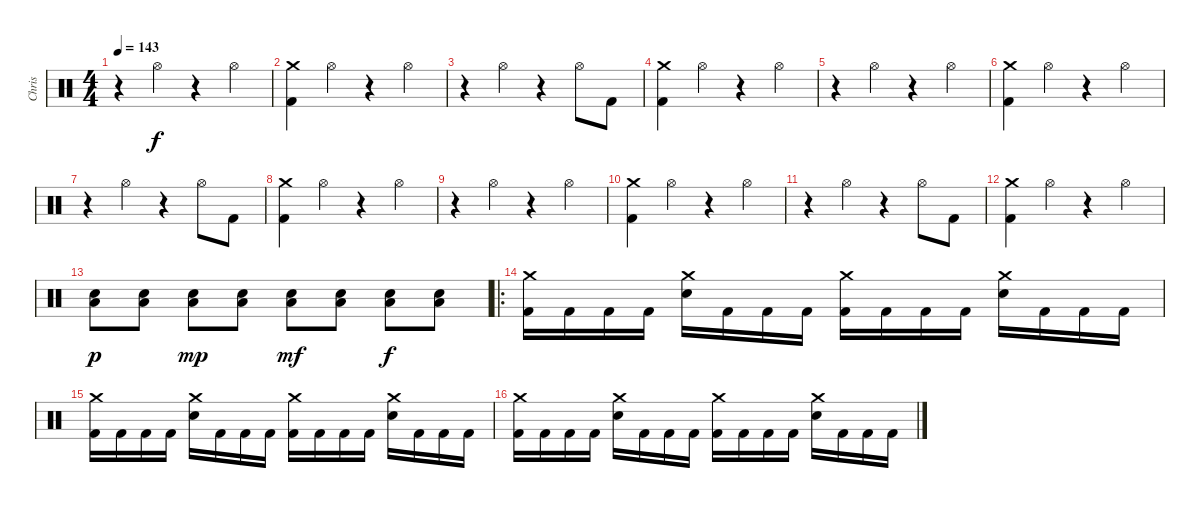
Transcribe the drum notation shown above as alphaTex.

\track ("Chris" "Chris") {instrument percussion}
\staff {score}
\articulation defaults
\ts (4 4)
\tempo 143
\clef neutral
\ks c
r.4{dy f} "Hi-Hat (open)".4 r.4 "Hi-Hat (open)".4 |
("Crash medium (hit)" "Kick (hit) 2").4 "Hi-Hat (open)".4 r.4 "Hi-Hat (open)".4 |
r.4 "Hi-Hat (open)".4 r.4 "Hi-Hat (open)".8 "Kick (hit) 2".8 |
("Crash medium (hit)" "Kick (hit) 2").4 "Hi-Hat (open)".4 r.4 "Hi-Hat (open)".4 |
r.4 "Hi-Hat (open)".4 r.4 "Hi-Hat (open)".4 |
("Crash medium (hit)" "Kick (hit) 2").4 "Hi-Hat (open)".4 r.4 "Hi-Hat (open)".4 |
r.4 "Hi-Hat (open)".4 r.4 "Hi-Hat (open)".8 "Kick (hit) 2".8 |
("Crash medium (hit)" "Kick (hit) 2").4 "Hi-Hat (open)".4 r.4 "Hi-Hat (open)".4 |
r.4 "Hi-Hat (open)".4 r.4 "Hi-Hat (open)".4 |
("Crash medium (hit)" "Kick (hit) 2").4 "Hi-Hat (open)".4 r.4 "Hi-Hat (open)".4 |
r.4 "Hi-Hat (open)".4 r.4 "Hi-Hat (open)".8 "Kick (hit) 2".8 |
("Crash medium (hit)" "Kick (hit) 2").4 "Hi-Hat (open)".4 r.4 "Hi-Hat (open)".4 |
("Electric Snare (hit)" "Low Floor Tom (hit)").8{dy p} ("Electric Snare (hit)" "Low Floor Tom (hit)").8 ("Electric Snare (hit)" "Low Floor Tom (hit)").8{dy mp} ("Electric Snare (hit)" "Low Floor Tom (hit)").8 ("Electric Snare (hit)" "Low Floor Tom (hit)").8{dy mf} ("Electric Snare (hit)" "Low Floor Tom (hit)").8 ("Electric Snare (hit)" "Low Floor Tom (hit)").8{dy f} ("Electric Snare (hit)" "Low Floor Tom (hit)").8 |
\ro
("Crash medium (hit)" "Kick (hit) 2").16 "Kick (hit) 2".16 "Kick (hit) 2".16 "Kick (hit) 2".16 ("Crash medium (hit)" "Electric Snare (hit)").16 "Kick (hit) 2".16 "Kick (hit) 2".16 "Kick (hit) 2".16 ("Crash medium (hit)" "Kick (hit) 2").16 "Kick (hit) 2".16 "Kick (hit) 2".16 "Kick (hit) 2".16 ("Crash medium (hit)" "Electric Snare (hit)").16 "Kick (hit) 2".16 "Kick (hit) 2".16 "Kick (hit) 2".16 |
("Crash medium (hit)" "Kick (hit) 2").16 "Kick (hit) 2".16 "Kick (hit) 2".16 "Kick (hit) 2".16 ("Crash medium (hit)" "Electric Snare (hit)").16 "Kick (hit) 2".16 "Kick (hit) 2".16 "Kick (hit) 2".16 ("Crash medium (hit)" "Kick (hit) 2").16 "Kick (hit) 2".16 "Kick (hit) 2".16 "Kick (hit) 2".16 ("Crash medium (hit)" "Electric Snare (hit)").16 "Kick (hit) 2".16 "Kick (hit) 2".16 "Kick (hit) 2".16 |
("Crash medium (hit)" "Kick (hit) 2").16 "Kick (hit) 2".16 "Kick (hit) 2".16 "Kick (hit) 2".16 ("Crash medium (hit)" "Electric Snare (hit)").16 "Kick (hit) 2".16 "Kick (hit) 2".16 "Kick (hit) 2".16 ("Crash medium (hit)" "Kick (hit) 2").16 "Kick (hit) 2".16 "Kick (hit) 2".16 "Kick (hit) 2".16 ("Crash medium (hit)" "Electric Snare (hit)").16 "Kick (hit) 2".16 "Kick (hit) 2".16 "Kick (hit) 2".16
